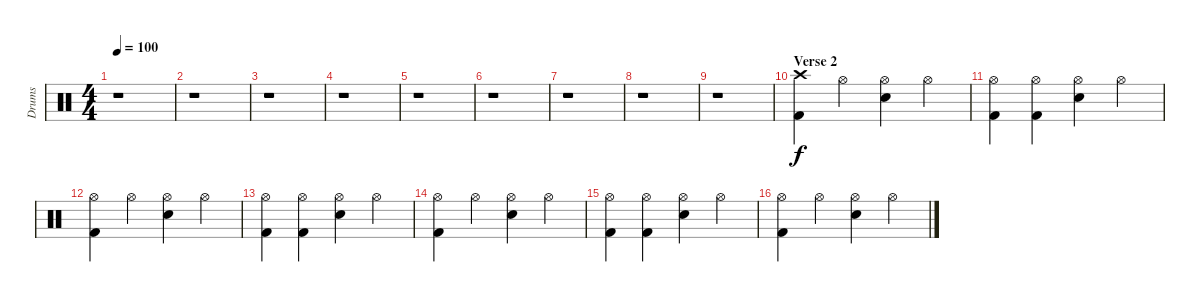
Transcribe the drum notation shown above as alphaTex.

\track ("Drums" "Drums") {instrument percussion}
\staff {score}
\articulation defaults
\ts (4 4)
\tempo 100
\clef neutral
\ks c
r.1{dy f} |
r.1 |
r.1 |
r.1 |
r.1 |
r.1 |
r.1 |
r.1 |
r.1 |
\section ("" "Verse 2")
("Crash high (hit)" "Kick (hit) 2").4 "Hi-Hat (open)".4 ("Hi-Hat (open)" "Snare (hit) 2").4 "Hi-Hat (open)".4 |
("Hi-Hat (open)" "Kick (hit) 2").4 ("Hi-Hat (open)" "Kick (hit) 2").4 ("Hi-Hat (open)" "Snare (hit) 2").4 "Hi-Hat (open)".4 |
("Hi-Hat (open)" "Kick (hit) 2").4 "Hi-Hat (open)".4 ("Hi-Hat (open)" "Snare (hit) 2").4 "Hi-Hat (open)".4 |
("Hi-Hat (open)" "Kick (hit) 2").4 ("Hi-Hat (open)" "Kick (hit) 2").4 ("Hi-Hat (open)" "Snare (hit) 2").4 "Hi-Hat (open)".4 |
("Hi-Hat (open)" "Kick (hit) 2").4 "Hi-Hat (open)".4 ("Hi-Hat (open)" "Snare (hit) 2").4 "Hi-Hat (open)".4 |
("Hi-Hat (open)" "Kick (hit) 2").4 ("Hi-Hat (open)" "Kick (hit) 2").4 ("Hi-Hat (open)" "Snare (hit) 2").4 "Hi-Hat (open)".4 |
("Hi-Hat (open)" "Kick (hit) 2").4 "Hi-Hat (open)".4 ("Hi-Hat (open)" "Snare (hit) 2").4 "Hi-Hat (open)".4
